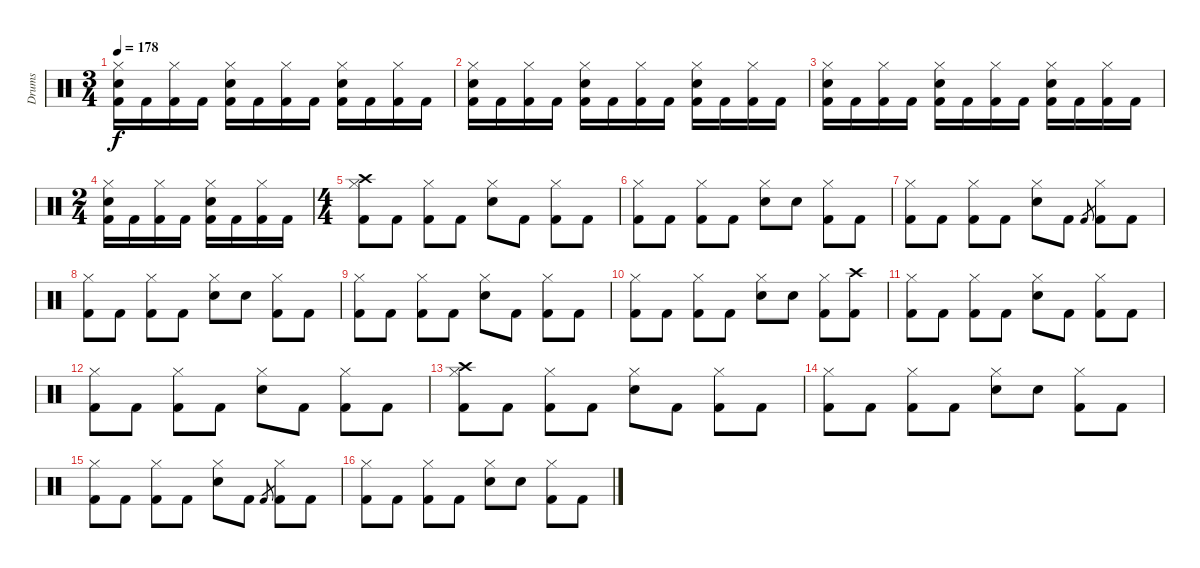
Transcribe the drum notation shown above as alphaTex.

\track ("Drums" "Drums") {instrument percussion}
\staff {score}
\articulation defaults
\ts (3 4)
\tempo 178
\clef neutral
\ks c
("Kick (hit) 2" "Snare (hit) 2" "Hi-Hat (closed)").16{dy f} "Kick (hit) 2".16 ("Kick (hit) 2" "Hi-Hat (closed)").16 "Kick (hit) 2".16 ("Kick (hit) 2" "Snare (hit) 2" "Hi-Hat (closed)").16 "Kick (hit) 2".16 ("Kick (hit) 2" "Hi-Hat (closed)").16 "Kick (hit) 2".16 ("Kick (hit) 2" "Snare (hit) 2" "Hi-Hat (closed)").16 "Kick (hit) 2".16 ("Kick (hit) 2" "Hi-Hat (closed)").16 "Kick (hit) 2".16 |
("Kick (hit) 2" "Snare (hit) 2" "Hi-Hat (closed)").16 "Kick (hit) 2".16 ("Kick (hit) 2" "Hi-Hat (closed)").16 "Kick (hit) 2".16 ("Kick (hit) 2" "Snare (hit) 2" "Hi-Hat (closed)").16 "Kick (hit) 2".16 ("Kick (hit) 2" "Hi-Hat (closed)").16 "Kick (hit) 2".16 ("Kick (hit) 2" "Snare (hit) 2" "Hi-Hat (closed)").16 "Kick (hit) 2".16 ("Kick (hit) 2" "Hi-Hat (closed)").16 "Kick (hit) 2".16 |
("Kick (hit) 2" "Snare (hit) 2" "Hi-Hat (closed)").16 "Kick (hit) 2".16 ("Kick (hit) 2" "Hi-Hat (closed)").16 "Kick (hit) 2".16 ("Kick (hit) 2" "Snare (hit) 2" "Hi-Hat (closed)").16 "Kick (hit) 2".16 ("Kick (hit) 2" "Hi-Hat (closed)").16 "Kick (hit) 2".16 ("Kick (hit) 2" "Snare (hit) 2" "Hi-Hat (closed)").16 "Kick (hit) 2".16 ("Kick (hit) 2" "Hi-Hat (closed)").16 "Kick (hit) 2".16 |
\ts (2 4)
("Kick (hit) 2" "Snare (hit) 2" "Hi-Hat (closed)").16 "Kick (hit) 2".16 ("Kick (hit) 2" "Hi-Hat (closed)").16 "Kick (hit) 2".16 ("Kick (hit) 2" "Snare (hit) 2" "Hi-Hat (closed)").16 "Kick (hit) 2".16 ("Kick (hit) 2" "Hi-Hat (closed)").16 "Kick (hit) 2".16 |
\ts (4 4)
("Kick (hit) 2" "Hi-Hat (closed)" "Crash high (hit)").8 "Kick (hit) 2".8 ("Kick (hit) 2" "Hi-Hat (closed)").8 "Kick (hit) 2".8 ("Snare (hit) 2" "Hi-Hat (closed)").8 "Kick (hit) 2".8 ("Kick (hit) 2" "Hi-Hat (closed)").8 "Kick (hit) 2".8 |
("Kick (hit) 2" "Hi-Hat (closed)").8 "Kick (hit) 2".8 ("Kick (hit) 2" "Hi-Hat (closed)").8 "Kick (hit) 2".8 ("Snare (hit) 2" "Hi-Hat (closed)").8 "Snare (hit) 2".8 ("Kick (hit) 2" "Hi-Hat (closed)").8 "Kick (hit) 2".8 |
("Kick (hit) 2" "Hi-Hat (closed)").8 "Kick (hit) 2".8 ("Kick (hit) 2" "Hi-Hat (closed)").8 "Kick (hit) 2".8 ("Snare (hit) 2" "Hi-Hat (closed)").8 "Kick (hit) 2".8 "Kick (hit) 2".8{gr} ("Kick (hit) 2" "Hi-Hat (closed)").8 "Kick (hit) 2".8 |
("Kick (hit) 2" "Hi-Hat (closed)").8 "Kick (hit) 2".8 ("Kick (hit) 2" "Hi-Hat (closed)").8 "Kick (hit) 2".8 ("Snare (hit) 2" "Hi-Hat (closed)").8 "Snare (hit) 2".8 ("Kick (hit) 2" "Hi-Hat (closed)").8 "Kick (hit) 2".8 |
("Kick (hit) 2" "Hi-Hat (closed)").8 "Kick (hit) 2".8 ("Kick (hit) 2" "Hi-Hat (closed)").8 "Kick (hit) 2".8 ("Snare (hit) 2" "Hi-Hat (closed)").8 "Kick (hit) 2".8 ("Kick (hit) 2" "Hi-Hat (closed)").8 "Kick (hit) 2".8 |
("Kick (hit) 2" "Hi-Hat (closed)").8 "Kick (hit) 2".8 ("Kick (hit) 2" "Hi-Hat (closed)").8 "Kick (hit) 2".8 ("Snare (hit) 2" "Hi-Hat (closed)").8 "Snare (hit) 2".8 ("Kick (hit) 2" "Hi-Hat (closed)").8 ("Kick (hit) 2" "Crash high (hit)").8 |
("Kick (hit) 2" "Hi-Hat (closed)").8 "Kick (hit) 2".8 ("Kick (hit) 2" "Hi-Hat (closed)").8 "Kick (hit) 2".8 ("Snare (hit) 2" "Hi-Hat (closed)").8 "Kick (hit) 2".8 ("Kick (hit) 2" "Hi-Hat (closed)").8 "Kick (hit) 2".8 |
("Kick (hit) 2" "Hi-Hat (closed)").8 "Kick (hit) 2".8 ("Kick (hit) 2" "Hi-Hat (closed)").8 "Kick (hit) 2".8 ("Snare (hit) 2" "Hi-Hat (closed)").8 "Kick (hit) 2".8 ("Kick (hit) 2" "Hi-Hat (closed)").8 "Kick (hit) 2".8 |
("Kick (hit) 2" "Hi-Hat (closed)" "Crash high (hit)").8 "Kick (hit) 2".8 ("Kick (hit) 2" "Hi-Hat (closed)").8 "Kick (hit) 2".8 ("Snare (hit) 2" "Hi-Hat (closed)").8 "Kick (hit) 2".8 ("Kick (hit) 2" "Hi-Hat (closed)").8 "Kick (hit) 2".8 |
("Kick (hit) 2" "Hi-Hat (closed)").8 "Kick (hit) 2".8 ("Kick (hit) 2" "Hi-Hat (closed)").8 "Kick (hit) 2".8 ("Snare (hit) 2" "Hi-Hat (closed)").8 "Snare (hit) 2".8 ("Kick (hit) 2" "Hi-Hat (closed)").8 "Kick (hit) 2".8 |
("Kick (hit) 2" "Hi-Hat (closed)").8 "Kick (hit) 2".8 ("Kick (hit) 2" "Hi-Hat (closed)").8 "Kick (hit) 2".8 ("Snare (hit) 2" "Hi-Hat (closed)").8 "Kick (hit) 2".8 "Kick (hit) 2".8{gr} ("Kick (hit) 2" "Hi-Hat (closed)").8 "Kick (hit) 2".8 |
("Kick (hit) 2" "Hi-Hat (closed)").8 "Kick (hit) 2".8 ("Kick (hit) 2" "Hi-Hat (closed)").8 "Kick (hit) 2".8 ("Snare (hit) 2" "Hi-Hat (closed)").8 "Snare (hit) 2".8 ("Kick (hit) 2" "Hi-Hat (closed)").8 "Kick (hit) 2".8
